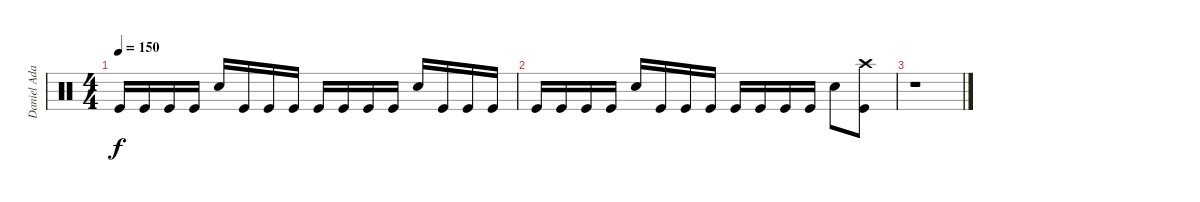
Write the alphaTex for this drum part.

\track ("Daniel Adair" "Daniel Ada") {instrument percussion}
\staff {score}
\articulation defaults
\ts (4 4)
\tempo 150
\clef neutral
\ks c "Kick (hit)".16{dy f} "Kick (hit)".16 "Kick (hit)".16 "Kick (hit)".16 "Electric Snare (hit)".16 "Kick (hit)".16 "Kick (hit)".16 "Kick (hit)".16 "Kick (hit)".16 "Kick (hit)".16 "Kick (hit)".16 "Kick (hit)".16 "Electric Snare (hit)".16 "Kick (hit)".16 "Kick (hit)".16 "Kick (hit)".16
|
"Kick (hit)".16 "Kick (hit)".16 "Kick (hit)".16 "Kick (hit)".16 "Electric Snare (hit)".16 "Kick (hit)".16 "Kick (hit)".16 "Kick (hit)".16 "Kick (hit)".16 "Kick (hit)".16 "Kick (hit)".16 "Kick (hit)".16 "Electric Snare (hit)".8 ("Kick (hit)" "Crash high (hit)").8 |
r.1
